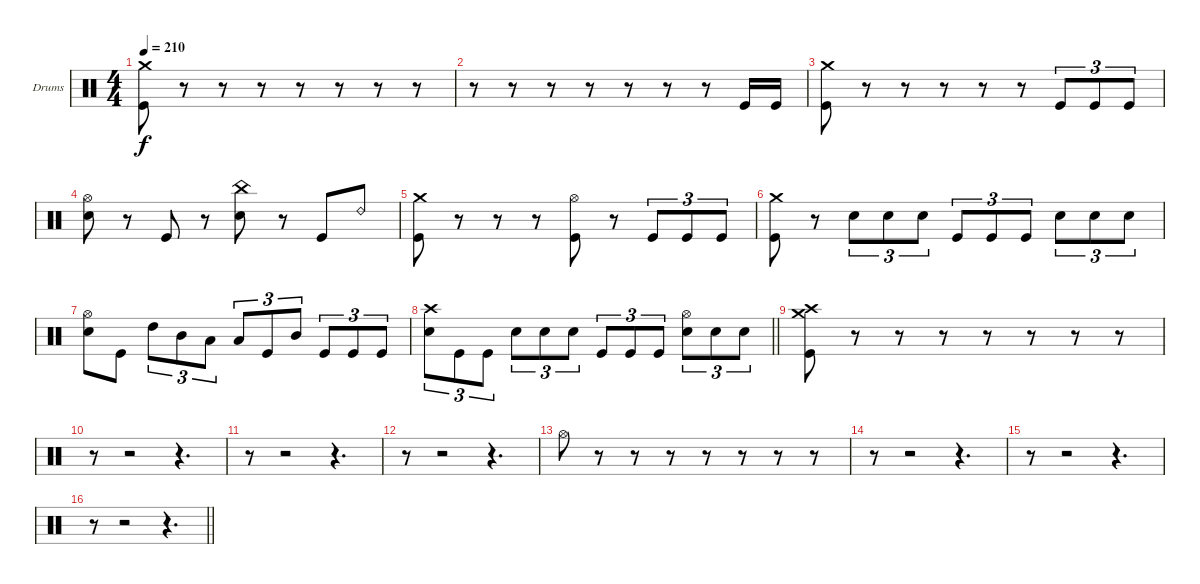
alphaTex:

\bracketExtendMode groupsimilarinstruments
\firstSystemTrackNameOrientation horizontal
\otherSystemsTrackNameOrientation horizontal
\track ("Drumkit" "Drums") {instrument percussion}
\staff {score}
\articulation defaults
\ts (4 4)
\tempo 210
\clef neutral
\ks c
("Crash medium (hit)" "Kick (hit)").8{dy f} r.8 r.8 r.8 r.8 r.8 r.8 r.8 |
r.8 r.8 r.8 r.8 r.8 r.8 r.8 "Kick (hit)".16 "Kick (hit)".16 |
("Crash medium (hit)" "Kick (hit)").8 r.8 r.8 r.8 r.8 r.8 "Kick (hit)".8{tu (3 2)} "Kick (hit)".8{tu (3 2)} "Kick (hit)".8{tu (3 2)} |
("Hi-Hat (open)" "Snare (hit) 2").8 r.8 "Kick (hit)".8 r.8 ("China (hit)" "Snare (hit) 2").8 r.8 "Kick (hit)".8 "Ride (bell) 2".8 |
("Crash medium (hit)" "Kick (hit)").8 r.8 r.8 r.8 ("Hi-Hat (open)" "Kick (hit)").8 r.8 "Kick (hit)".8{tu (3 2)} "Kick (hit)".8{tu (3 2)} "Kick (hit)".8{tu (3 2)} |
("Crash medium (hit)" "Kick (hit)").8 r.8 "Snare (hit) 2".8{tu (3 2)} "Snare (hit) 2".8{tu (3 2)} "Snare (hit) 2".8{tu (3 2)} "Kick (hit)".8{tu (3 2)} "Kick (hit)".8{tu (3 2)} "Kick (hit)".8{tu (3 2)} "Snare (hit) 2".8{tu (3 2)} "Snare (hit) 2".8{tu (3 2)} "Snare (hit) 2".8{tu (3 2)} |
("Hi-Hat (open)" "Snare (hit) 2").8 "Kick (hit)".8 "High Tom (hit)".8{tu (3 2)} "Mid Tom (hit)".8{tu (3 2)} "Low Tom (hit)".8{tu (3 2)} "Low Tom (hit)".8{tu (3 2)} "Kick (hit)".8{tu (3 2)} "Mid Tom (hit)".8{tu (3 2)} "Kick (hit)".8{tu (3 2)} "Kick (hit)".8{tu (3 2)} "Kick (hit)".8{tu (3 2)} |
\barLineRight lightlight
("Crash high (hit)" "Snare (hit) 2").8{tu (3 2)} "Kick (hit)".8{tu (3 2)} "Kick (hit)".8{tu (3 2)} "Snare (hit) 2".8{tu (3 2)} "Snare (hit) 2".8{tu (3 2)} "Snare (hit) 2".8{tu (3 2)} "Kick (hit)".8{tu (3 2)} "Kick (hit)".8{tu (3 2)} "Kick (hit)".8{tu (3 2)} ("Hi-Hat (open)" "Snare (hit) 2").8{tu (3 2)} "Snare (hit) 2".8{tu (3 2)} "Snare (hit) 2".8{tu (3 2)} |
\section ("" "")
("Crash high (hit)" "Crash medium (hit)" "Kick (hit)").8 r.8 r.8 r.8 r.8 r.8 r.8 r.8 |
r.8 r.2 r.4{d} |
r.8 r.2 r.4{d} |
r.8 r.2 r.4{d} |
"Hi-Hat (open)".8 r.8 r.8 r.8 r.8 r.8 r.8 r.8 |
r.8 r.2 r.4{d} |
r.8 r.2 r.4{d} |
\barLineRight lightlight
r.8 r.2 r.4{d}
